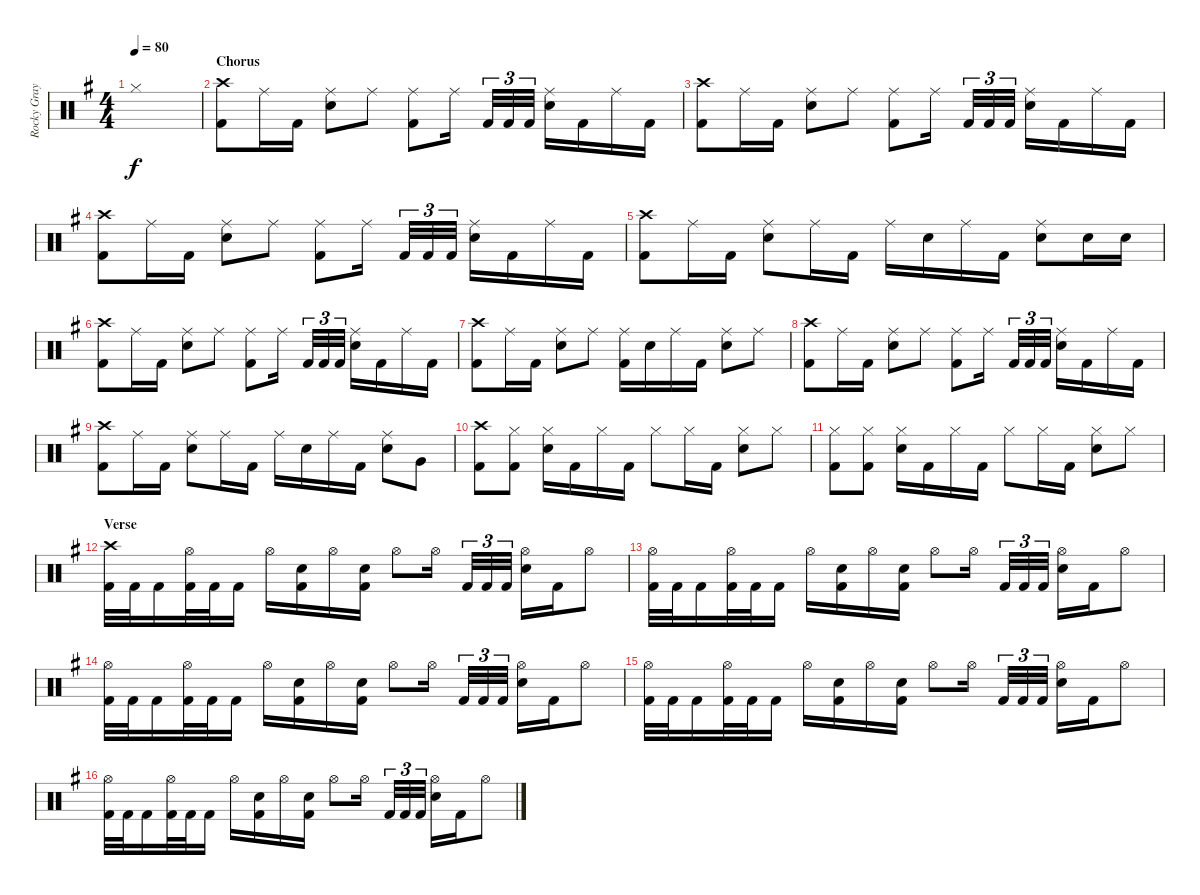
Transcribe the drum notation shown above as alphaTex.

\track ("Rocky Gray" "Rocky Gray") {instrument percussion}
\staff {score}
\articulation defaults
\ts (4 4)
\tempo 80
\clef neutral
\ks g "Hi-Hat (closed)".1{dy f}
|
\section ("" "Chorus")
("Crash high (hit)" "Kick (hit) 2").8 "Ride (middle)".16 "Kick (hit) 2".16 ("Ride (middle)" "Snare (hit) 2").8 "Ride (middle)".8 ("Ride (middle)" "Kick (hit) 2").8 "Ride (middle)".16 "Kick (hit) 2".32{tu (3 2)} "Kick (hit) 2".32{tu (3 2)} "Kick (hit) 2".32{tu (3 2)} ("Ride (middle)" "Snare (hit) 2").16 "Kick (hit) 2".16 "Ride (middle)".16 "Kick (hit) 2".16 |
("Crash high (hit)" "Kick (hit) 2").8 "Ride (middle)".16 "Kick (hit) 2".16 ("Ride (middle)" "Snare (hit) 2").8 "Ride (middle)".8 ("Ride (middle)" "Kick (hit) 2").8 "Ride (middle)".16 "Kick (hit) 2".32{tu (3 2)} "Kick (hit) 2".32{tu (3 2)} "Kick (hit) 2".32{tu (3 2)} ("Ride (middle)" "Snare (hit) 2").16 "Kick (hit) 2".16 "Ride (middle)".16 "Kick (hit) 2".16 |
("Crash high (hit)" "Kick (hit) 2").8 "Ride (middle)".16 "Kick (hit) 2".16 ("Ride (middle)" "Snare (hit) 2").8 "Ride (middle)".8 ("Ride (middle)" "Kick (hit) 2").8 "Ride (middle)".16 "Kick (hit) 2".32{tu (3 2)} "Kick (hit) 2".32{tu (3 2)} "Kick (hit) 2".32{tu (3 2)} ("Ride (middle)" "Snare (hit) 2").16 "Kick (hit) 2".16 "Ride (middle)".16 "Kick (hit) 2".16 |
("Crash high (hit)" "Kick (hit) 2").8 "Ride (middle)".16 "Kick (hit) 2".16 ("Ride (middle)" "Snare (hit) 2").8 "Ride (middle)".16 "Kick (hit) 2".16 "Ride (middle)".16 "Snare (hit) 2".16 "Ride (middle)".16 "Kick (hit) 2".16 ("Ride (middle)" "Snare (hit) 2").8 "Snare (hit) 2".16 "Snare (hit) 2".16 |
("Crash high (hit)" "Kick (hit) 2").8 "Ride (middle)".16 "Kick (hit) 2".16 ("Ride (middle)" "Snare (hit) 2").8 "Ride (middle)".8 ("Ride (middle)" "Kick (hit) 2").8 "Ride (middle)".16 "Kick (hit) 2".32{tu (3 2)} "Kick (hit) 2".32{tu (3 2)} "Kick (hit) 2".32{tu (3 2)} ("Ride (middle)" "Snare (hit) 2").16 "Kick (hit) 2".16 "Ride (middle)".16 "Kick (hit) 2".16 |
("Crash high (hit)" "Kick (hit) 2").8 "Ride (middle)".16 "Kick (hit) 2".16 ("Ride (middle)" "Snare (hit) 2").8 "Ride (middle)".8 ("Ride (middle)" "Kick (hit) 2").16 "Snare (hit) 2".16 "Ride (middle)".16 "Kick (hit) 2".16 ("Ride (middle)" "Snare (hit) 2").8 "Ride (middle)".8 |
("Crash high (hit)" "Kick (hit) 2").8 "Ride (middle)".16 "Kick (hit) 2".16 ("Ride (middle)" "Snare (hit) 2").8 "Ride (middle)".8 ("Ride (middle)" "Kick (hit) 2").8 "Ride (middle)".16 "Kick (hit) 2".32{tu (3 2)} "Kick (hit) 2".32{tu (3 2)} "Kick (hit) 2".32{tu (3 2)} ("Ride (middle)" "Snare (hit) 2").16 "Kick (hit) 2".16 "Ride (middle)".16 "Kick (hit) 2".16 |
("Crash high (hit)" "Kick (hit) 2").8 "Ride (middle)".16 "Kick (hit) 2".16 ("Ride (middle)" "Snare (hit) 2").8 "Ride (middle)".16 "Kick (hit) 2".16 "Ride (middle)".16 "Snare (hit) 2".16 "Ride (middle)".16 "Kick (hit) 2".16 ("Ride (middle)" "Snare (hit) 2").8 "Very Low Tom (hit)".8 |
("Crash high (hit)" "Kick (hit) 2").8 ("Hi-Hat (closed)" "Kick (hit) 2").8 ("Hi-Hat (closed)" "Snare (hit) 2").16 "Kick (hit) 2".16 "Hi-Hat (closed)".16 "Kick (hit) 2".16 "Hi-Hat (closed)".8 "Hi-Hat (closed)".16 "Kick (hit) 2".16 ("Hi-Hat (closed)" "Snare (hit) 2").8 "Hi-Hat (closed)".8 |
("Hi-Hat (closed)" "Kick (hit) 2").8 ("Hi-Hat (closed)" "Kick (hit) 2").8 ("Hi-Hat (closed)" "Snare (hit) 2").16 "Kick (hit) 2".16 "Hi-Hat (closed)".16 "Kick (hit) 2".16 "Hi-Hat (closed)".8 "Hi-Hat (closed)".16 "Kick (hit) 2".16 ("Hi-Hat (closed)" "Snare (hit) 2").8 "Hi-Hat (closed)".8 |
\section ("" "Verse")
("Crash high (hit)" "Kick (hit) 2").32 "Kick (hit) 2".32 "Kick (hit) 2".16 ("Hi-Hat (open)" "Kick (hit) 2").32 "Kick (hit) 2".32 "Kick (hit) 2".16 "Hi-Hat (open)".16 ("Snare (hit) 2" "Kick (hit) 2").16 "Hi-Hat (open)".16 ("Snare (hit) 2" "Kick (hit) 2").16 "Hi-Hat (open)".8 "Hi-Hat (open)".16 "Kick (hit) 2".32{tu (3 2)} "Kick (hit) 2".32{tu (3 2)} "Kick (hit) 2".32{tu (3 2)} ("Hi-Hat (open)" "Snare (hit) 2").16 "Kick (hit) 2".16 "Hi-Hat (open)".8 |
("Hi-Hat (open)" "Kick (hit) 2").32 "Kick (hit) 2".32 "Kick (hit) 2".16 ("Hi-Hat (open)" "Kick (hit) 2").32 "Kick (hit) 2".32 "Kick (hit) 2".16 "Hi-Hat (open)".16 ("Snare (hit) 2" "Kick (hit) 2").16 "Hi-Hat (open)".16 ("Snare (hit) 2" "Kick (hit) 2").16 "Hi-Hat (open)".8 "Hi-Hat (open)".16 "Kick (hit) 2".32{tu (3 2)} "Kick (hit) 2".32{tu (3 2)} "Kick (hit) 2".32{tu (3 2)} ("Hi-Hat (open)" "Snare (hit) 2").16 "Kick (hit) 2".16 "Hi-Hat (open)".8 |
("Hi-Hat (open)" "Kick (hit) 2").32 "Kick (hit) 2".32 "Kick (hit) 2".16 ("Hi-Hat (open)" "Kick (hit) 2").32 "Kick (hit) 2".32 "Kick (hit) 2".16 "Hi-Hat (open)".16 ("Snare (hit) 2" "Kick (hit) 2").16 "Hi-Hat (open)".16 ("Snare (hit) 2" "Kick (hit) 2").16 "Hi-Hat (open)".8 "Hi-Hat (open)".16 "Kick (hit) 2".32{tu (3 2)} "Kick (hit) 2".32{tu (3 2)} "Kick (hit) 2".32{tu (3 2)} ("Hi-Hat (open)" "Snare (hit) 2").16 "Kick (hit) 2".16 "Hi-Hat (open)".8 |
("Hi-Hat (open)" "Kick (hit) 2").32 "Kick (hit) 2".32 "Kick (hit) 2".16 ("Hi-Hat (open)" "Kick (hit) 2").32 "Kick (hit) 2".32 "Kick (hit) 2".16 "Hi-Hat (open)".16 ("Snare (hit) 2" "Kick (hit) 2").16 "Hi-Hat (open)".16 ("Snare (hit) 2" "Kick (hit) 2").16 "Hi-Hat (open)".8 "Hi-Hat (open)".16 "Kick (hit) 2".32{tu (3 2)} "Kick (hit) 2".32{tu (3 2)} "Kick (hit) 2".32{tu (3 2)} ("Hi-Hat (open)" "Snare (hit) 2").16 "Kick (hit) 2".16 "Hi-Hat (open)".8 |
("Hi-Hat (open)" "Kick (hit) 2").32 "Kick (hit) 2".32 "Kick (hit) 2".16 ("Hi-Hat (open)" "Kick (hit) 2").32 "Kick (hit) 2".32 "Kick (hit) 2".16 "Hi-Hat (open)".16 ("Snare (hit) 2" "Kick (hit) 2").16 "Hi-Hat (open)".16 ("Snare (hit) 2" "Kick (hit) 2").16 "Hi-Hat (open)".8 "Hi-Hat (open)".16 "Kick (hit) 2".32{tu (3 2)} "Kick (hit) 2".32{tu (3 2)} "Kick (hit) 2".32{tu (3 2)} ("Hi-Hat (open)" "Snare (hit) 2").16 "Kick (hit) 2".16 "Hi-Hat (open)".8
